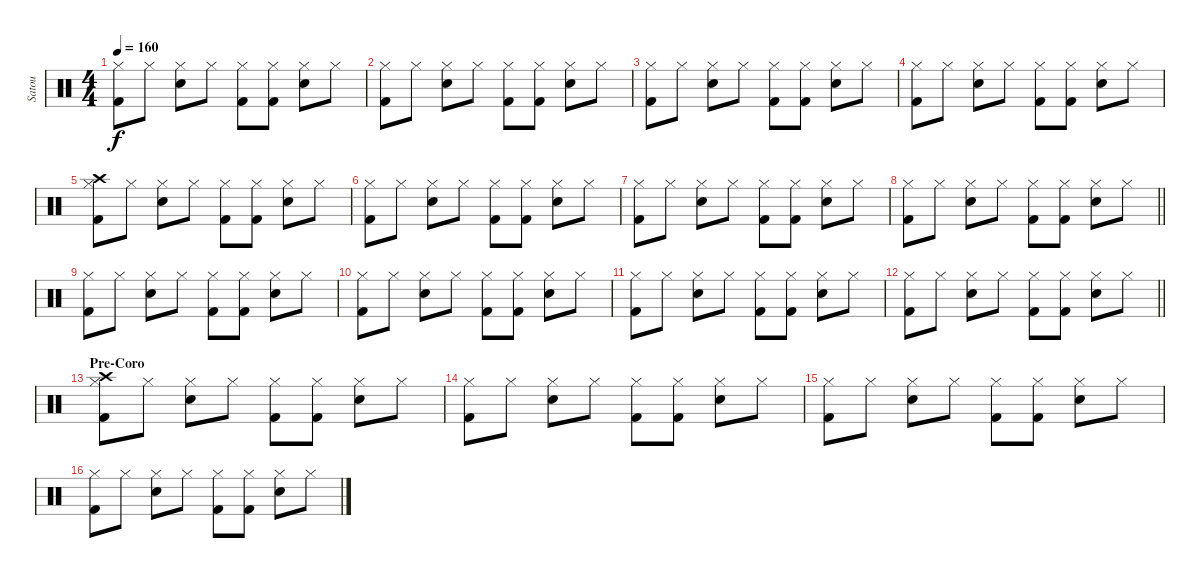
\track ("Satou" "Satou") {instrument percussion}
\staff {score}
\articulation defaults
\ts (4 4)
\tempo 160
\clef neutral
\ks c
("Hi-Hat (closed)" "Kick (hit) 2").8{dy f} "Hi-Hat (closed)".8 ("Hi-Hat (closed)" "Snare (hit) 2").8 "Hi-Hat (closed)".8 ("Hi-Hat (closed)" "Kick (hit) 2").8 ("Hi-Hat (closed)" "Kick (hit) 2").8 ("Hi-Hat (closed)" "Snare (hit) 2").8 "Hi-Hat (closed)".8 |
("Hi-Hat (closed)" "Kick (hit) 2").8 "Hi-Hat (closed)".8 ("Hi-Hat (closed)" "Snare (hit) 2").8 "Hi-Hat (closed)".8 ("Hi-Hat (closed)" "Kick (hit) 2").8 ("Hi-Hat (closed)" "Kick (hit) 2").8 ("Hi-Hat (closed)" "Snare (hit) 2").8 "Hi-Hat (closed)".8 |
("Hi-Hat (closed)" "Kick (hit) 2").8 "Hi-Hat (closed)".8 ("Hi-Hat (closed)" "Snare (hit) 2").8 "Hi-Hat (closed)".8 ("Hi-Hat (closed)" "Kick (hit) 2").8 ("Hi-Hat (closed)" "Kick (hit) 2").8 ("Hi-Hat (closed)" "Snare (hit) 2").8 "Hi-Hat (closed)".8 |
("Hi-Hat (closed)" "Kick (hit) 2").8 "Hi-Hat (closed)".8 ("Hi-Hat (closed)" "Snare (hit) 2").8 "Hi-Hat (closed)".8 ("Hi-Hat (closed)" "Kick (hit) 2").8 ("Hi-Hat (closed)" "Kick (hit) 2").8 ("Hi-Hat (closed)" "Snare (hit) 2").8 "Hi-Hat (closed)".8 |
("Hi-Hat (closed)" "Kick (hit) 2" "Crash high (hit)").8 "Hi-Hat (closed)".8 ("Hi-Hat (closed)" "Snare (hit) 2").8 "Hi-Hat (closed)".8 ("Hi-Hat (closed)" "Kick (hit) 2").8 ("Hi-Hat (closed)" "Kick (hit) 2").8 ("Hi-Hat (closed)" "Snare (hit) 2").8 "Hi-Hat (closed)".8 |
("Hi-Hat (closed)" "Kick (hit) 2").8 "Hi-Hat (closed)".8 ("Hi-Hat (closed)" "Snare (hit) 2").8 "Hi-Hat (closed)".8 ("Hi-Hat (closed)" "Kick (hit) 2").8 ("Hi-Hat (closed)" "Kick (hit) 2").8 ("Hi-Hat (closed)" "Snare (hit) 2").8 "Hi-Hat (closed)".8 |
("Hi-Hat (closed)" "Kick (hit) 2").8 "Hi-Hat (closed)".8 ("Hi-Hat (closed)" "Snare (hit) 2").8 "Hi-Hat (closed)".8 ("Hi-Hat (closed)" "Kick (hit) 2").8 ("Hi-Hat (closed)" "Kick (hit) 2").8 ("Hi-Hat (closed)" "Snare (hit) 2").8 "Hi-Hat (closed)".8 |
\barLineRight lightlight
("Hi-Hat (closed)" "Kick (hit) 2").8 "Hi-Hat (closed)".8 ("Hi-Hat (closed)" "Snare (hit) 2").8 "Hi-Hat (closed)".8 ("Hi-Hat (closed)" "Kick (hit) 2").8 ("Hi-Hat (closed)" "Kick (hit) 2").8 ("Hi-Hat (closed)" "Snare (hit) 2").8 "Hi-Hat (closed)".8 |
("Hi-Hat (closed)" "Kick (hit) 2").8 "Hi-Hat (closed)".8 ("Hi-Hat (closed)" "Snare (hit) 2").8 "Hi-Hat (closed)".8 ("Hi-Hat (closed)" "Kick (hit) 2").8 ("Hi-Hat (closed)" "Kick (hit) 2").8 ("Hi-Hat (closed)" "Snare (hit) 2").8 "Hi-Hat (closed)".8 |
("Hi-Hat (closed)" "Kick (hit) 2").8 "Hi-Hat (closed)".8 ("Hi-Hat (closed)" "Snare (hit) 2").8 "Hi-Hat (closed)".8 ("Hi-Hat (closed)" "Kick (hit) 2").8 ("Hi-Hat (closed)" "Kick (hit) 2").8 ("Hi-Hat (closed)" "Snare (hit) 2").8 "Hi-Hat (closed)".8 |
("Hi-Hat (closed)" "Kick (hit) 2").8 "Hi-Hat (closed)".8 ("Hi-Hat (closed)" "Snare (hit) 2").8 "Hi-Hat (closed)".8 ("Hi-Hat (closed)" "Kick (hit) 2").8 ("Hi-Hat (closed)" "Kick (hit) 2").8 ("Hi-Hat (closed)" "Snare (hit) 2").8 "Hi-Hat (closed)".8 |
\barLineRight lightlight
("Hi-Hat (closed)" "Kick (hit) 2").8 "Hi-Hat (closed)".8 ("Hi-Hat (closed)" "Snare (hit) 2").8 "Hi-Hat (closed)".8 ("Hi-Hat (closed)" "Kick (hit) 2").8 ("Hi-Hat (closed)" "Kick (hit) 2").8 ("Hi-Hat (closed)" "Snare (hit) 2").8 "Hi-Hat (closed)".8 |
\section ("" "Pre-Coro")
("Hi-Hat (closed)" "Kick (hit) 2" "Crash high (hit)").8 "Hi-Hat (closed)".8 ("Hi-Hat (closed)" "Snare (hit) 2").8 "Hi-Hat (closed)".8 ("Hi-Hat (closed)" "Kick (hit) 2").8 ("Hi-Hat (closed)" "Kick (hit) 2").8 ("Hi-Hat (closed)" "Snare (hit) 2").8 "Hi-Hat (closed)".8 |
("Hi-Hat (closed)" "Kick (hit) 2").8 "Hi-Hat (closed)".8 ("Hi-Hat (closed)" "Snare (hit) 2").8 "Hi-Hat (closed)".8 ("Hi-Hat (closed)" "Kick (hit) 2").8 ("Hi-Hat (closed)" "Kick (hit) 2").8 ("Hi-Hat (closed)" "Snare (hit) 2").8 "Hi-Hat (closed)".8 |
("Hi-Hat (closed)" "Kick (hit) 2").8 "Hi-Hat (closed)".8 ("Hi-Hat (closed)" "Snare (hit) 2").8 "Hi-Hat (closed)".8 ("Hi-Hat (closed)" "Kick (hit) 2").8 ("Hi-Hat (closed)" "Kick (hit) 2").8 ("Hi-Hat (closed)" "Snare (hit) 2").8 "Hi-Hat (closed)".8 |
("Hi-Hat (closed)" "Kick (hit) 2").8 "Hi-Hat (closed)".8 ("Hi-Hat (closed)" "Snare (hit) 2").8 "Hi-Hat (closed)".8 ("Hi-Hat (closed)" "Kick (hit) 2").8 ("Hi-Hat (closed)" "Kick (hit) 2").8 ("Hi-Hat (closed)" "Snare (hit) 2").8 "Hi-Hat (closed)".8
